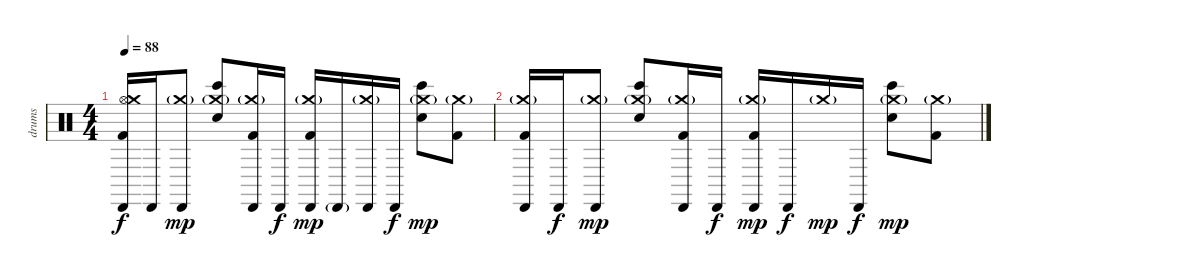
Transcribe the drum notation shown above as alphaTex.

\track ("drums" "drums") {instrument percussion}
\staff {score}
\articulation defaults
\ts (4 4)
\tempo 88
\clef neutral
\ks c
("Cabasa (hit)" "Kick (hit) 2" "Hi-Hat (open)" "Crash medium (hit)").16{dy f} "Cabasa (hit)".16 ("Cabasa (hit)" "Crash medium (hit)"{g}).8{dy mp} ("Hand Clap (hit)" "Bongo High (hit)" "Crash medium (hit)"{g}).8 ("Cabasa (hit)" "Kick (hit) 2" "Crash medium (hit)"{g}).16 "Cabasa (hit)".16{dy f} ("Cabasa (hit)" "Kick (hit) 2" "Crash medium (hit)"{g}).16{dy mp} "Cabasa (hit)"{g}.16 ("Cabasa (hit)" "Crash medium (hit)"{g}).16 "Cabasa (hit)".16{dy f} ("Hand Clap (hit)" "Bongo High (hit)" "Crash medium (hit)"{g}).8{dy mp} ("Kick (hit) 2" "Crash medium (hit)"{g}).8 |
("Cabasa (hit)" "Kick (hit) 2" "Crash medium (hit)"{g}).16 "Cabasa (hit)".16{dy f} ("Cabasa (hit)" "Crash medium (hit)"{g}).8{dy mp} ("Bongo High (hit)" "Hand Clap (hit)" "Crash medium (hit)"{g}).8 ("Cabasa (hit)" "Kick (hit) 2" "Crash medium (hit)"{g}).16 "Cabasa (hit)".16{dy f} ("Cabasa (hit)" "Kick (hit) 2" "Crash medium (hit)"{g}).16{dy mp} "Cabasa (hit)".16{dy f} "Crash medium (hit)"{g}.16{dy mp} "Cabasa (hit)".16{dy f} ("Bongo High (hit)" "Hand Clap (hit)" "Crash medium (hit)"{g}).8{dy mp} ("Kick (hit) 2" "Crash medium (hit)"{g}).8
